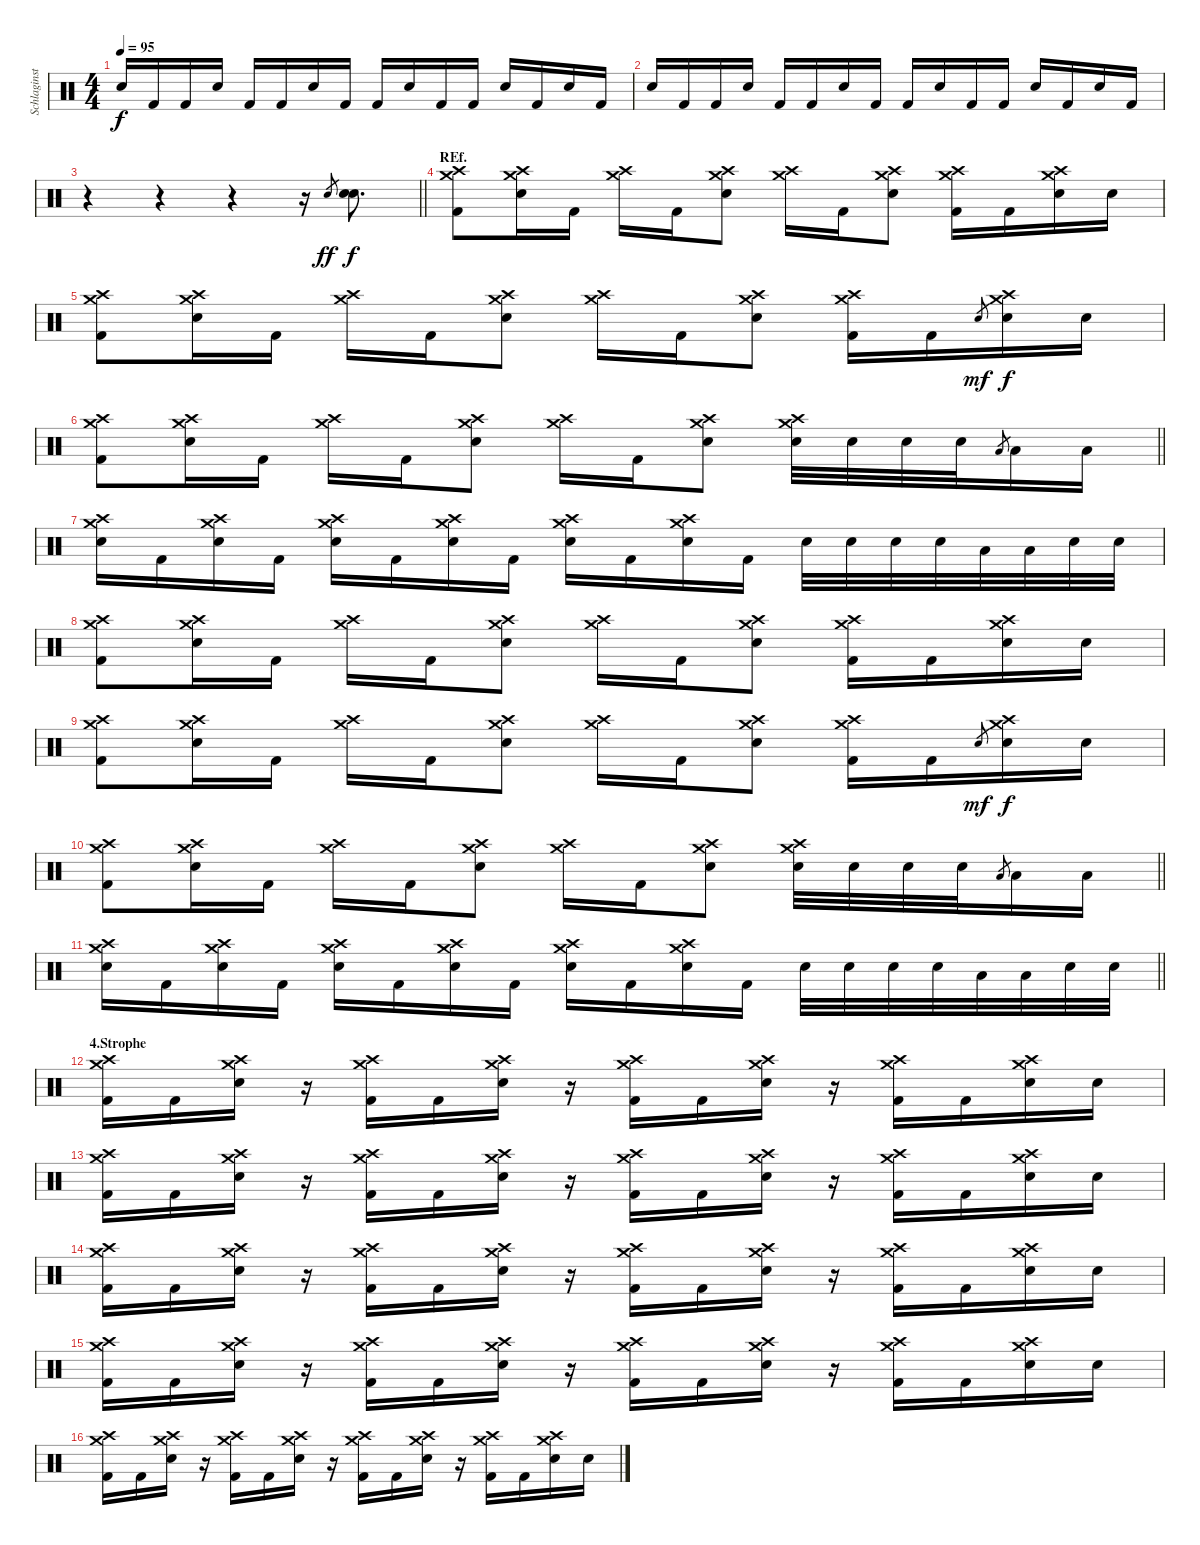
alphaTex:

\track ("Schlaginstrumente - Auswahl" "Schlaginst") {instrument percussion}
\staff {score}
\articulation defaults
\ts (4 4)
\tempo 95
\clef neutral
\ks c "Snare (hit) 2".16{dy f} "Kick (hit) 2".16 "Kick (hit) 2".16 "Snare (hit) 2".16 "Kick (hit) 2".16 "Kick (hit) 2".16 "Snare (hit) 2".16 "Kick (hit) 2".16 "Kick (hit) 2".16 "Snare (hit) 2".16 "Kick (hit) 2".16 "Kick (hit) 2".16 "Snare (hit) 2".16 "Kick (hit) 2".16 "Snare (hit) 2".16 "Kick (hit) 2".16
|
"Snare (hit) 2".16 "Kick (hit) 2".16 "Kick (hit) 2".16 "Snare (hit) 2".16 "Kick (hit) 2".16 "Kick (hit) 2".16 "Snare (hit) 2".16 "Kick (hit) 2".16 "Kick (hit) 2".16 "Snare (hit) 2".16 "Kick (hit) 2".16 "Kick (hit) 2".16 "Snare (hit) 2".16 "Kick (hit) 2".16 "Snare (hit) 2".16 "Kick (hit) 2".16 |
\barLineRight lightlight
r.4 r.4 r.4 r.16 "Electric Snare (hit)".8{gr dy ff} ("Electric Snare (hit)" "Snare (hit)").8{d dy f} |
\section ("" "REf.")
("Crash high (hit)" "Crash medium (hit)" "Kick (hit) 2").8 ("Crash high (hit)" "Crash medium (hit)" "Electric Snare (hit)").16 "Kick (hit) 2".16 ("Crash high (hit)" "Crash medium (hit)").16 "Kick (hit) 2".16 ("Crash high (hit)" "Crash medium (hit)" "Electric Snare (hit)").8 ("Crash high (hit)" "Crash medium (hit)").16 "Kick (hit) 2".16 ("Crash high (hit)" "Crash medium (hit)" "Electric Snare (hit)").8 ("Crash high (hit)" "Crash medium (hit)" "Kick (hit) 2").16 "Kick (hit) 2".16 ("Crash high (hit)" "Crash medium (hit)" "Electric Snare (hit)").16 "Electric Snare (hit)".16 |
("Crash high (hit)" "Crash medium (hit)" "Kick (hit) 2").8 ("Crash high (hit)" "Crash medium (hit)" "Electric Snare (hit)").16 "Kick (hit) 2".16 ("Crash high (hit)" "Crash medium (hit)").16 "Kick (hit) 2".16 ("Crash high (hit)" "Crash medium (hit)" "Electric Snare (hit)").8 ("Crash high (hit)" "Crash medium (hit)").16 "Kick (hit) 2".16 ("Crash high (hit)" "Crash medium (hit)" "Electric Snare (hit)").8 ("Crash high (hit)" "Crash medium (hit)" "Kick (hit) 2").16 "Kick (hit) 2".16 "Electric Snare (hit)".8{gr dy mf} ("Crash high (hit)" "Crash medium (hit)" "Electric Snare (hit)").16{dy f} "Electric Snare (hit)".16 |
\barLineRight lightlight
("Crash high (hit)" "Crash medium (hit)" "Kick (hit) 2").8 ("Crash high (hit)" "Crash medium (hit)" "Electric Snare (hit)").16 "Kick (hit) 2".16 ("Crash high (hit)" "Crash medium (hit)").16 "Kick (hit) 2".16 ("Crash high (hit)" "Crash medium (hit)" "Electric Snare (hit)").8 ("Crash high (hit)" "Crash medium (hit)").16 "Kick (hit) 2".16 ("Crash high (hit)" "Crash medium (hit)" "Electric Snare (hit)").8 ("Crash high (hit)" "Crash medium (hit)" "Electric Snare (hit)").32 "Electric Snare (hit)".32 "Electric Snare (hit)".32 "Electric Snare (hit)".32 "Low Tom (hit)".8{gr} "Low Tom (hit)".16 "Low Tom (hit)".16 |
("Crash high (hit)" "Crash medium (hit)" "Electric Snare (hit)").16 "Kick (hit) 2".16 ("Crash high (hit)" "Crash medium (hit)" "Electric Snare (hit)").16 "Kick (hit) 2".16 ("Crash high (hit)" "Crash medium (hit)" "Electric Snare (hit)").16 "Kick (hit) 2".16 ("Crash high (hit)" "Crash medium (hit)" "Electric Snare (hit)").16 "Kick (hit) 2".16 ("Crash high (hit)" "Crash medium (hit)" "Electric Snare (hit)").16 "Kick (hit) 2".16 ("Crash high (hit)" "Crash medium (hit)" "Electric Snare (hit)").16 "Kick (hit) 2".16 "Electric Snare (hit)".32 "Electric Snare (hit)".32 "Electric Snare (hit)".32 "Electric Snare (hit)".32 "Low Tom (hit)".32 "Low Tom (hit)".32 "Snare (hit) 2".32 "Snare (hit) 2".32 |
("Crash high (hit)" "Crash medium (hit)" "Kick (hit) 2").8 ("Crash high (hit)" "Crash medium (hit)" "Electric Snare (hit)").16 "Kick (hit) 2".16 ("Crash high (hit)" "Crash medium (hit)").16 "Kick (hit) 2".16 ("Crash high (hit)" "Crash medium (hit)" "Electric Snare (hit)").8 ("Crash high (hit)" "Crash medium (hit)").16 "Kick (hit) 2".16 ("Crash high (hit)" "Crash medium (hit)" "Electric Snare (hit)").8 ("Crash high (hit)" "Crash medium (hit)" "Kick (hit) 2").16 "Kick (hit) 2".16 ("Crash high (hit)" "Crash medium (hit)" "Electric Snare (hit)").16 "Electric Snare (hit)".16 |
("Crash high (hit)" "Crash medium (hit)" "Kick (hit) 2").8 ("Crash high (hit)" "Crash medium (hit)" "Electric Snare (hit)").16 "Kick (hit) 2".16 ("Crash high (hit)" "Crash medium (hit)").16 "Kick (hit) 2".16 ("Crash high (hit)" "Crash medium (hit)" "Electric Snare (hit)").8 ("Crash high (hit)" "Crash medium (hit)").16 "Kick (hit) 2".16 ("Crash high (hit)" "Crash medium (hit)" "Electric Snare (hit)").8 ("Crash high (hit)" "Crash medium (hit)" "Kick (hit) 2").16 "Kick (hit) 2".16 "Electric Snare (hit)".8{gr dy mf} ("Crash high (hit)" "Crash medium (hit)" "Electric Snare (hit)").16{dy f} "Electric Snare (hit)".16 |
\barLineRight lightlight
("Crash high (hit)" "Crash medium (hit)" "Kick (hit) 2").8 ("Crash high (hit)" "Crash medium (hit)" "Electric Snare (hit)").16 "Kick (hit) 2".16 ("Crash high (hit)" "Crash medium (hit)").16 "Kick (hit) 2".16 ("Crash high (hit)" "Crash medium (hit)" "Electric Snare (hit)").8 ("Crash high (hit)" "Crash medium (hit)").16 "Kick (hit) 2".16 ("Crash high (hit)" "Crash medium (hit)" "Electric Snare (hit)").8 ("Crash high (hit)" "Crash medium (hit)" "Electric Snare (hit)").32 "Electric Snare (hit)".32 "Electric Snare (hit)".32 "Electric Snare (hit)".32 "Low Tom (hit)".8{gr} "Low Tom (hit)".16 "Low Tom (hit)".16 |
\barLineRight lightlight
("Crash high (hit)" "Crash medium (hit)" "Electric Snare (hit)").16 "Kick (hit) 2".16 ("Crash high (hit)" "Crash medium (hit)" "Electric Snare (hit)").16 "Kick (hit) 2".16 ("Crash high (hit)" "Crash medium (hit)" "Electric Snare (hit)").16 "Kick (hit) 2".16 ("Crash high (hit)" "Crash medium (hit)" "Electric Snare (hit)").16 "Kick (hit) 2".16 ("Crash high (hit)" "Crash medium (hit)" "Electric Snare (hit)").16 "Kick (hit) 2".16 ("Crash high (hit)" "Crash medium (hit)" "Electric Snare (hit)").16 "Kick (hit) 2".16 "Electric Snare (hit)".32 "Electric Snare (hit)".32 "Electric Snare (hit)".32 "Electric Snare (hit)".32 "Low Tom (hit)".32 "Low Tom (hit)".32 "Snare (hit) 2".32 "Snare (hit) 2".32 |
\section ("" "4.Strophe")
("Crash high (hit)" "Crash medium (hit)" "Kick (hit) 2").16 "Kick (hit) 2".16 ("Crash high (hit)" "Crash medium (hit)" "Electric Snare (hit)").16 r.16 ("Crash high (hit)" "Crash medium (hit)" "Kick (hit) 2").16 "Kick (hit) 2".16 ("Crash high (hit)" "Crash medium (hit)" "Electric Snare (hit)").16 r.16 ("Crash high (hit)" "Crash medium (hit)" "Kick (hit) 2").16 "Kick (hit) 2".16 ("Crash high (hit)" "Crash medium (hit)" "Electric Snare (hit)").16 r.16 ("Crash high (hit)" "Crash medium (hit)" "Kick (hit) 2").16 "Kick (hit) 2".16 ("Crash high (hit)" "Crash medium (hit)" "Electric Snare (hit)").16 "Electric Snare (hit)".16 |
("Crash high (hit)" "Crash medium (hit)" "Kick (hit) 2").16 "Kick (hit) 2".16 ("Crash high (hit)" "Crash medium (hit)" "Electric Snare (hit)").16 r.16 ("Crash high (hit)" "Crash medium (hit)" "Kick (hit) 2").16 "Kick (hit) 2".16 ("Crash high (hit)" "Crash medium (hit)" "Electric Snare (hit)").16 r.16 ("Crash high (hit)" "Crash medium (hit)" "Kick (hit) 2").16 "Kick (hit) 2".16 ("Crash high (hit)" "Crash medium (hit)" "Electric Snare (hit)").16 r.16 ("Crash high (hit)" "Crash medium (hit)" "Kick (hit) 2").16 "Kick (hit) 2".16 ("Crash high (hit)" "Crash medium (hit)" "Electric Snare (hit)").16 "Electric Snare (hit)".16 |
("Crash high (hit)" "Crash medium (hit)" "Kick (hit) 2").16 "Kick (hit) 2".16 ("Crash high (hit)" "Crash medium (hit)" "Electric Snare (hit)").16 r.16 ("Crash high (hit)" "Crash medium (hit)" "Kick (hit) 2").16 "Kick (hit) 2".16 ("Crash high (hit)" "Crash medium (hit)" "Electric Snare (hit)").16 r.16 ("Crash high (hit)" "Crash medium (hit)" "Kick (hit) 2").16 "Kick (hit) 2".16 ("Crash high (hit)" "Crash medium (hit)" "Electric Snare (hit)").16 r.16 ("Crash high (hit)" "Crash medium (hit)" "Kick (hit) 2").16 "Kick (hit) 2".16 ("Crash high (hit)" "Crash medium (hit)" "Electric Snare (hit)").16 "Electric Snare (hit)".16 |
("Crash high (hit)" "Crash medium (hit)" "Kick (hit) 2").16 "Kick (hit) 2".16 ("Crash high (hit)" "Crash medium (hit)" "Electric Snare (hit)").16 r.16 ("Crash high (hit)" "Crash medium (hit)" "Kick (hit) 2").16 "Kick (hit) 2".16 ("Crash high (hit)" "Crash medium (hit)" "Electric Snare (hit)").16 r.16 ("Crash high (hit)" "Crash medium (hit)" "Kick (hit) 2").16 "Kick (hit) 2".16 ("Crash high (hit)" "Crash medium (hit)" "Electric Snare (hit)").16 r.16 ("Crash high (hit)" "Crash medium (hit)" "Kick (hit) 2").16 "Kick (hit) 2".16 ("Crash high (hit)" "Crash medium (hit)" "Electric Snare (hit)").16 "Electric Snare (hit)".16 |
("Crash high (hit)" "Crash medium (hit)" "Kick (hit) 2").16 "Kick (hit) 2".16 ("Crash high (hit)" "Crash medium (hit)" "Electric Snare (hit)").16 r.16 ("Crash high (hit)" "Crash medium (hit)" "Kick (hit) 2").16 "Kick (hit) 2".16 ("Crash high (hit)" "Crash medium (hit)" "Electric Snare (hit)").16 r.16 ("Crash high (hit)" "Crash medium (hit)" "Kick (hit) 2").16 "Kick (hit) 2".16 ("Crash high (hit)" "Crash medium (hit)" "Electric Snare (hit)").16 r.16 ("Crash high (hit)" "Crash medium (hit)" "Kick (hit) 2").16 "Kick (hit) 2".16 ("Crash high (hit)" "Crash medium (hit)" "Electric Snare (hit)").16 "Electric Snare (hit)".16
